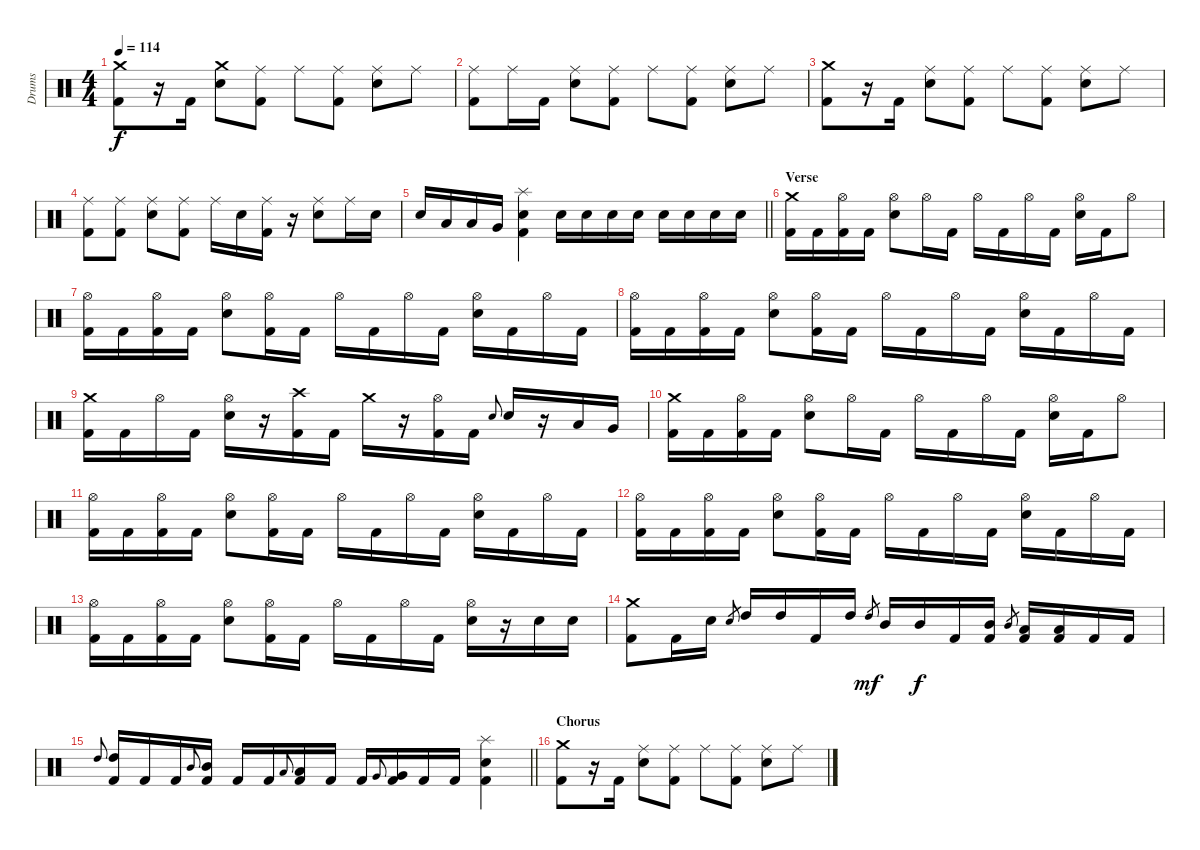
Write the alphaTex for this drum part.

\track ("Drums" "Drums") {instrument percussion}
\staff {score}
\articulation defaults
\ts (4 4)
\tempo 114
\clef neutral
\ks c
("Crash medium (hit)" "Kick (hit) 2").8{dy f} r.16 "Kick (hit) 2".16 ("Crash medium (hit)" "Electric Snare (hit)").8 ("Ride (middle)" "Kick (hit) 2").8 "Ride (middle)".8 ("Ride (middle)" "Kick (hit) 2").8 ("Ride (middle)" "Electric Snare (hit)").8 "Ride (middle)".8 |
("Ride (middle)" "Kick (hit) 2").8 "Ride (middle)".16 "Kick (hit) 2".16 ("Ride (middle)" "Electric Snare (hit)").8 ("Ride (middle)" "Kick (hit) 2").8 "Ride (middle)".8 ("Ride (middle)" "Kick (hit) 2").8 ("Ride (middle)" "Electric Snare (hit)").8 "Ride (middle)".8 |
("Crash medium (hit)" "Kick (hit) 2").8 r.16 "Kick (hit) 2".16 ("Ride (middle)" "Electric Snare (hit)").8 ("Ride (middle)" "Kick (hit) 2").8 "Ride (middle)".8 ("Ride (middle)" "Kick (hit) 2").8 ("Ride (middle)" "Electric Snare (hit)").8 "Ride (middle)".8 |
("Ride (middle)" "Kick (hit) 2").8 ("Ride (middle)" "Kick (hit) 2").8 ("Ride (middle)" "Electric Snare (hit)").8 ("Ride (middle)" "Kick (hit) 2").8 "Ride (middle)".16 "Electric Snare (hit)".16 ("Ride (middle)" "Kick (hit) 2").16 r.16 ("Ride (middle)" "Electric Snare (hit)").8 "Ride (middle)".16 "Electric Snare (hit)".16 |
\barLineRight lightlight "Electric Snare (hit)".16 "Low Tom (hit)".16 "Low Tom (hit)".16 "Very Low Tom (hit)".16
("Splash (hit)" "Electric Snare (hit)" "Kick (hit) 2").4 "Electric Snare (hit)".16 "Electric Snare (hit)".16 "Electric Snare (hit)".16 "Electric Snare (hit)".16 "Electric Snare (hit)".16 "Electric Snare (hit)".16 "Electric Snare (hit)".16 "Electric Snare (hit)".16 |
\section ("" "Verse")
("Crash medium (hit)" "Kick (hit) 2").16 "Kick (hit) 2".16 ("Hi-Hat (open)" "Kick (hit) 2").16 "Kick (hit) 2".16 ("Hi-Hat (open)" "Electric Snare (hit)").8 "Hi-Hat (open)".16 "Kick (hit) 2".16 "Hi-Hat (open)".16 "Kick (hit) 2".16 "Hi-Hat (open)".16 "Kick (hit) 2".16 ("Hi-Hat (open)" "Electric Snare (hit)").16 "Kick (hit) 2".16 "Hi-Hat (open)".8 |
("Hi-Hat (open)" "Kick (hit) 2").16 "Kick (hit) 2".16 ("Hi-Hat (open)" "Kick (hit) 2").16 "Kick (hit) 2".16 ("Hi-Hat (open)" "Electric Snare (hit)").8 ("Hi-Hat (open)" "Kick (hit) 2").16 "Kick (hit) 2".16 "Hi-Hat (open)".16 "Kick (hit) 2".16 "Hi-Hat (open)".16 "Kick (hit) 2".16 ("Hi-Hat (open)" "Electric Snare (hit)").16 "Kick (hit) 2".16 "Hi-Hat (open)".16 "Kick (hit) 2".16 |
("Hi-Hat (open)" "Kick (hit) 2").16 "Kick (hit) 2".16 ("Hi-Hat (open)" "Kick (hit) 2").16 "Kick (hit) 2".16 ("Hi-Hat (open)" "Electric Snare (hit)").8 ("Hi-Hat (open)" "Kick (hit) 2").16 "Kick (hit) 2".16 "Hi-Hat (open)".16 "Kick (hit) 2".16 "Hi-Hat (open)".16 "Kick (hit) 2".16 ("Hi-Hat (open)" "Electric Snare (hit)").16 "Kick (hit) 2".16 "Hi-Hat (open)".16 "Kick (hit) 2".16 |
("Crash medium (hit)" "Kick (hit) 2").16 "Kick (hit) 2".16 "Hi-Hat (open)".16 "Kick (hit) 2".16 ("Hi-Hat (open)" "Electric Snare (hit)").16 r.16 ("Crash high (hit)" "Kick (hit) 2").16 "Kick (hit) 2".16 "Crash medium (hit)".16 r.16 ("Hi-Hat (open)" "Kick (hit) 2").16 "Kick (hit) 2".16 "Electric Snare (hit)".8{gr onbeat} "Electric Snare (hit)".16 r.16 "Low Tom (hit)".16 "Very Low Tom (hit)".16 |
("Crash medium (hit)" "Kick (hit) 2").16 "Kick (hit) 2".16 ("Hi-Hat (open)" "Kick (hit) 2").16 "Kick (hit) 2".16 ("Hi-Hat (open)" "Electric Snare (hit)").8 "Hi-Hat (open)".16 "Kick (hit) 2".16 "Hi-Hat (open)".16 "Kick (hit) 2".16 "Hi-Hat (open)".16 "Kick (hit) 2".16 ("Hi-Hat (open)" "Electric Snare (hit)").16 "Kick (hit) 2".16 "Hi-Hat (open)".8 |
("Hi-Hat (open)" "Kick (hit) 2").16 "Kick (hit) 2".16 ("Hi-Hat (open)" "Kick (hit) 2").16 "Kick (hit) 2".16 ("Hi-Hat (open)" "Electric Snare (hit)").8 ("Hi-Hat (open)" "Kick (hit) 2").16 "Kick (hit) 2".16 "Hi-Hat (open)".16 "Kick (hit) 2".16 "Hi-Hat (open)".16 "Kick (hit) 2".16 ("Hi-Hat (open)" "Electric Snare (hit)").16 "Kick (hit) 2".16 "Hi-Hat (open)".16 "Kick (hit) 2".16 |
("Hi-Hat (open)" "Kick (hit) 2").16 "Kick (hit) 2".16 ("Hi-Hat (open)" "Kick (hit) 2").16 "Kick (hit) 2".16 ("Hi-Hat (open)" "Electric Snare (hit)").8 ("Hi-Hat (open)" "Kick (hit) 2").16 "Kick (hit) 2".16 "Hi-Hat (open)".16 "Kick (hit) 2".16 "Hi-Hat (open)".16 "Kick (hit) 2".16 ("Hi-Hat (open)" "Electric Snare (hit)").16 "Kick (hit) 2".16 "Hi-Hat (open)".16 "Kick (hit) 2".16 |
("Hi-Hat (open)" "Kick (hit) 2").16 "Kick (hit) 2".16 ("Hi-Hat (open)" "Kick (hit) 2").16 "Kick (hit) 2".16 ("Hi-Hat (open)" "Electric Snare (hit)").8 ("Hi-Hat (open)" "Kick (hit) 2").16 "Kick (hit) 2".16 "Hi-Hat (open)".16 "Kick (hit) 2".16 "Hi-Hat (open)".16 "Kick (hit) 2".16 ("Hi-Hat (open)" "Electric Snare (hit)").16 r.16 "Electric Snare (hit)".16 "Electric Snare (hit)".16 |
("Crash medium (hit)" "Kick (hit) 2").8 "Kick (hit) 2".16 "Electric Snare (hit)".16 "Electric Snare (hit)".8{gr} "High Tom (hit)".16 "High Tom (hit)".16 "Kick (hit) 2".16 "High Tom (hit)".16 "High Tom (hit)".8{gr dy mf} "Mid Tom (hit)".16 "Mid Tom (hit)".16{dy f} "Kick (hit) 2".16 ("Mid Tom (hit)" "Kick (hit) 2").16 "Mid Tom (hit)".8{gr} ("Low Tom (hit)" "Kick (hit) 2").16 ("Low Tom (hit)" "Kick (hit) 2").16 "Kick (hit) 2".16 "Kick (hit) 2".16 |
\barLineRight lightlight "High Tom (hit)".8{gr onbeat}
("High Tom (hit)" "Kick (hit) 2").16 "Kick (hit) 2".16 "Kick (hit) 2".16 "Mid Tom (hit)".8{gr onbeat} ("Mid Tom (hit)" "Kick (hit) 2").16 "Kick (hit) 2".16 "Kick (hit) 2".16 "Low Tom (hit)".8{gr onbeat} ("Low Tom (hit)" "Kick (hit) 2").16 "Kick (hit) 2".16 "Kick (hit) 2".16 "Very Low Tom (hit)".8{gr onbeat} ("Very Low Tom (hit)" "Kick (hit) 2").16 "Kick (hit) 2".16 "Kick (hit) 2".16 ("Splash (hit)" "Electric Snare (hit)" "Kick (hit) 2").4 |
\section ("" "Chorus")
("Crash medium (hit)" "Kick (hit) 2").8 r.16 "Kick (hit) 2".16 ("Ride (middle)" "Electric Snare (hit)").8 ("Ride (middle)" "Kick (hit) 2").8 "Ride (middle)".8 ("Ride (middle)" "Kick (hit) 2").8 ("Ride (middle)" "Electric Snare (hit)").8 "Ride (middle)".8
